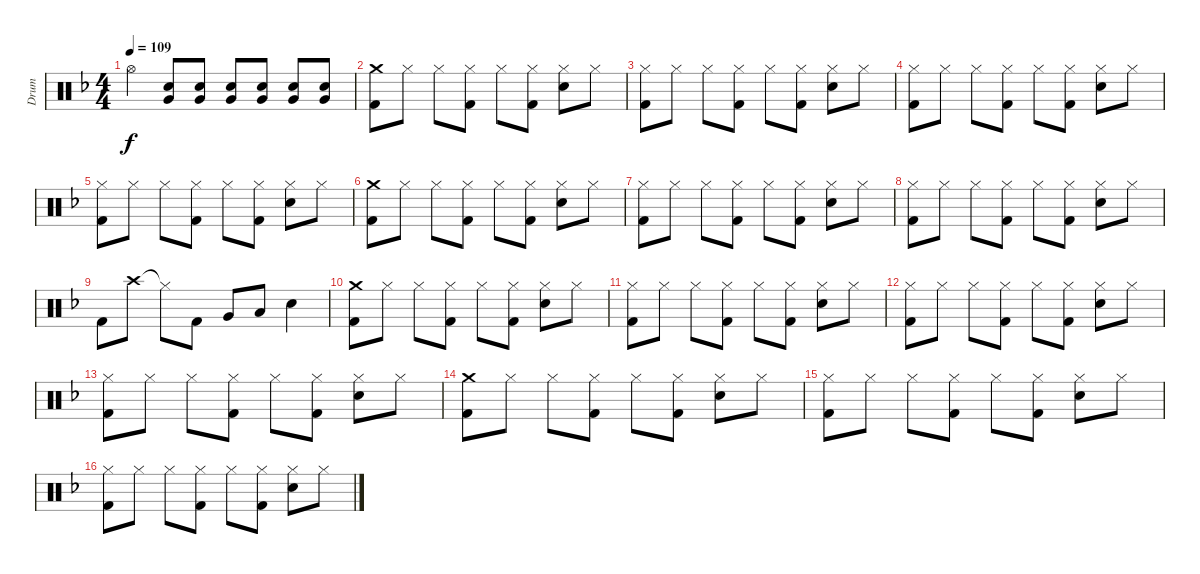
\track ("Drum" "Drum") {instrument percussion}
\staff {score}
\articulation defaults
\ts (4 4)
\tempo 109
\clef neutral
\ks f "Hi-Hat (open)".4{dy f}
("Electric Snare (hit)" "Very Low Tom (hit)").8{volume 8} ("Electric Snare (hit)" "Very Low Tom (hit)").8 ("Electric Snare (hit)" "Very Low Tom (hit)").8{volume 10} ("Electric Snare (hit)" "Very Low Tom (hit)").8 ("Electric Snare (hit)" "Very Low Tom (hit)").8{volume 12} ("Electric Snare (hit)" "Very Low Tom (hit)").8 |
("Crash medium (hit)" "Kick (hit) 2").8{volume 14} "Hi-Hat (closed)".8 "Hi-Hat (closed)".8 ("Hi-Hat (closed)" "Kick (hit) 2").8 "Hi-Hat (closed)".8 ("Hi-Hat (closed)" "Kick (hit) 2").8 ("Hi-Hat (closed)" "Electric Snare (hit)").8 "Hi-Hat (closed)".8 |
("Hi-Hat (closed)" "Kick (hit) 2").8 "Hi-Hat (closed)".8 "Hi-Hat (closed)".8 ("Hi-Hat (closed)" "Kick (hit) 2").8 "Hi-Hat (closed)".8 ("Hi-Hat (closed)" "Kick (hit) 2").8 ("Hi-Hat (closed)" "Electric Snare (hit)").8 "Hi-Hat (closed)".8 |
("Hi-Hat (closed)" "Kick (hit) 2").8 "Hi-Hat (closed)".8 "Hi-Hat (closed)".8 ("Hi-Hat (closed)" "Kick (hit) 2").8 "Hi-Hat (closed)".8 ("Hi-Hat (closed)" "Kick (hit) 2").8 ("Hi-Hat (closed)" "Electric Snare (hit)").8 "Hi-Hat (closed)".8 |
("Hi-Hat (closed)" "Kick (hit) 2").8 "Hi-Hat (closed)".8 "Hi-Hat (closed)".8 ("Hi-Hat (closed)" "Kick (hit) 2").8 "Hi-Hat (closed)".8 ("Hi-Hat (closed)" "Kick (hit) 2").8 ("Hi-Hat (closed)" "Electric Snare (hit)").8 "Hi-Hat (closed)".8 |
("Crash medium (hit)" "Kick (hit) 2").8 "Hi-Hat (closed)".8 "Hi-Hat (closed)".8 ("Hi-Hat (closed)" "Kick (hit) 2").8 "Hi-Hat (closed)".8 ("Hi-Hat (closed)" "Kick (hit) 2").8 ("Hi-Hat (closed)" "Electric Snare (hit)").8 "Hi-Hat (closed)".8 |
("Hi-Hat (closed)" "Kick (hit) 2").8 "Hi-Hat (closed)".8 "Hi-Hat (closed)".8 ("Hi-Hat (closed)" "Kick (hit) 2").8 "Hi-Hat (closed)".8 ("Hi-Hat (closed)" "Kick (hit) 2").8 ("Hi-Hat (closed)" "Electric Snare (hit)").8 "Hi-Hat (closed)".8 |
("Hi-Hat (closed)" "Kick (hit) 2").8 "Hi-Hat (closed)".8 "Hi-Hat (closed)".8 ("Hi-Hat (closed)" "Kick (hit) 2").8 "Hi-Hat (closed)".8 ("Hi-Hat (closed)" "Kick (hit) 2").8 ("Hi-Hat (closed)" "Electric Snare (hit)").8 "Hi-Hat (closed)".8 |
"Kick (hit) 2".8 "Crash high (hit)".8 "Hi-Hat (closed)"{t}.8 "Kick (hit) 2".8 "Very Low Tom (hit)".8 "Low Floor Tom (hit)".8 "Electric Snare (hit)".4 |
("Crash medium (hit)" "Kick (hit) 2").8 "Hi-Hat (closed)".8 "Hi-Hat (closed)".8 ("Hi-Hat (closed)" "Kick (hit) 2").8 "Hi-Hat (closed)".8 ("Hi-Hat (closed)" "Kick (hit) 2").8 ("Hi-Hat (closed)" "Electric Snare (hit)").8 "Hi-Hat (closed)".8 |
("Hi-Hat (closed)" "Kick (hit) 2").8 "Hi-Hat (closed)".8 "Hi-Hat (closed)".8 ("Hi-Hat (closed)" "Kick (hit) 2").8 "Hi-Hat (closed)".8 ("Hi-Hat (closed)" "Kick (hit) 2").8 ("Hi-Hat (closed)" "Electric Snare (hit)").8 "Hi-Hat (closed)".8 |
("Hi-Hat (closed)" "Kick (hit) 2").8 "Hi-Hat (closed)".8 "Hi-Hat (closed)".8 ("Hi-Hat (closed)" "Kick (hit) 2").8 "Hi-Hat (closed)".8 ("Hi-Hat (closed)" "Kick (hit) 2").8 ("Hi-Hat (closed)" "Electric Snare (hit)").8 "Hi-Hat (closed)".8 |
("Hi-Hat (closed)" "Kick (hit) 2").8 "Hi-Hat (closed)".8 "Hi-Hat (closed)".8 ("Hi-Hat (closed)" "Kick (hit) 2").8 "Hi-Hat (closed)".8 ("Hi-Hat (closed)" "Kick (hit) 2").8 ("Hi-Hat (closed)" "Electric Snare (hit)").8 "Hi-Hat (closed)".8 |
("Crash medium (hit)" "Kick (hit) 2").8 "Hi-Hat (closed)".8 "Hi-Hat (closed)".8 ("Hi-Hat (closed)" "Kick (hit) 2").8 "Hi-Hat (closed)".8 ("Hi-Hat (closed)" "Kick (hit) 2").8 ("Hi-Hat (closed)" "Electric Snare (hit)").8 "Hi-Hat (closed)".8 |
("Hi-Hat (closed)" "Kick (hit) 2").8 "Hi-Hat (closed)".8 "Hi-Hat (closed)".8 ("Hi-Hat (closed)" "Kick (hit) 2").8 "Hi-Hat (closed)".8 ("Hi-Hat (closed)" "Kick (hit) 2").8 ("Hi-Hat (closed)" "Electric Snare (hit)").8 "Hi-Hat (closed)".8 |
("Hi-Hat (closed)" "Kick (hit) 2").8 "Hi-Hat (closed)".8 "Hi-Hat (closed)".8 ("Hi-Hat (closed)" "Kick (hit) 2").8 "Hi-Hat (closed)".8 ("Hi-Hat (closed)" "Kick (hit) 2").8 ("Hi-Hat (closed)" "Electric Snare (hit)").8 "Hi-Hat (closed)".8
